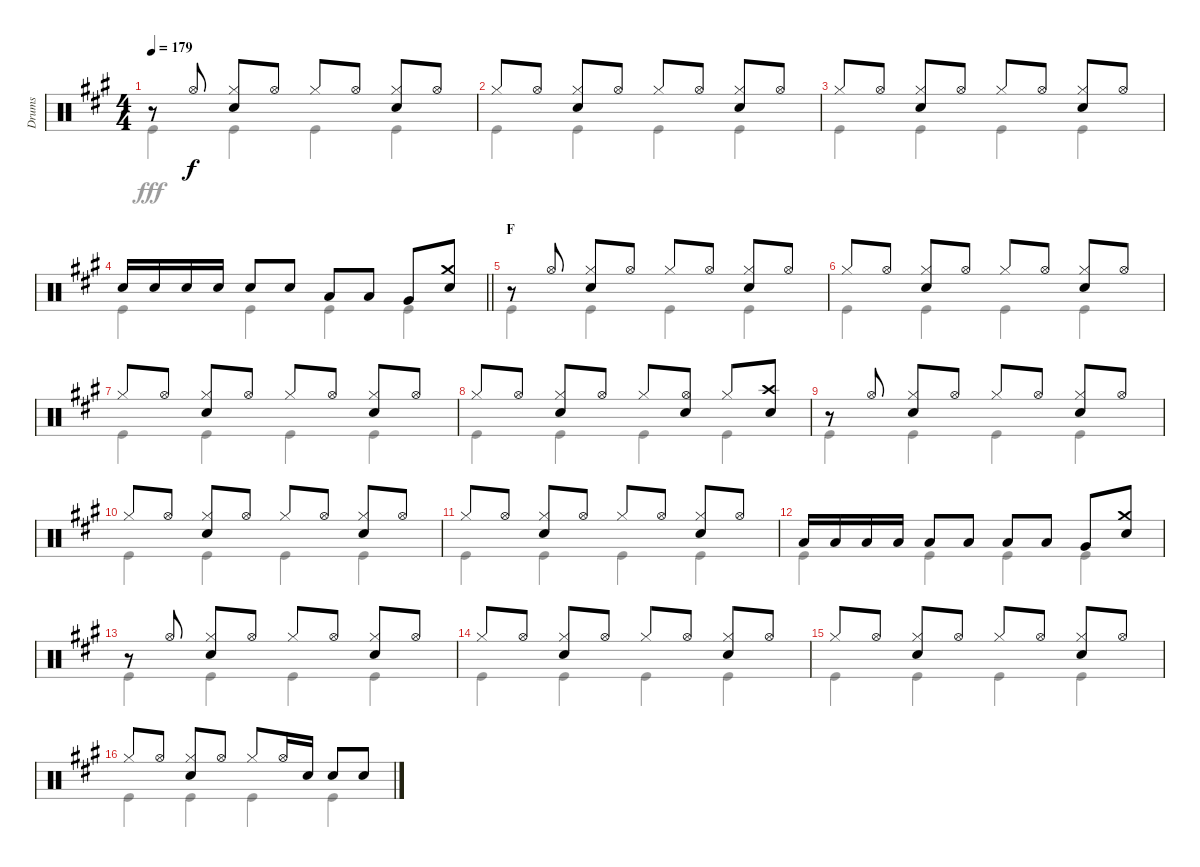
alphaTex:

\track ("Drums" "Drums") {instrument percussion}
\staff {score}
\articulation defaults
\voice
\ts (4 4)
\tempo 179
\clef neutral
\ks a
r.8{dy f} "Hi-Hat (open)".8 ("Hi-Hat (closed)" "Snare (hit) 2").8 "Hi-Hat (open)".8 "Hi-Hat (closed)".8 "Hi-Hat (open)".8 ("Hi-Hat (closed)" "Snare (hit) 2").8 "Hi-Hat (open)".8 |
"Hi-Hat (closed)".8 "Hi-Hat (open)".8 ("Hi-Hat (closed)" "Snare (hit) 2").8 "Hi-Hat (open)".8 "Hi-Hat (closed)".8 "Hi-Hat (open)".8 ("Hi-Hat (closed)" "Snare (hit) 2").8 "Hi-Hat (open)".8 |
"Hi-Hat (closed)".8 "Hi-Hat (open)".8 ("Hi-Hat (closed)" "Snare (hit) 2").8 "Hi-Hat (open)".8 "Hi-Hat (closed)".8 "Hi-Hat (open)".8 ("Hi-Hat (closed)" "Snare (hit) 2").8 "Hi-Hat (open)".8 |
\barLineRight lightlight "Snare (hit) 2".16 "Snare (hit) 2".16 "Snare (hit) 2".16 "Snare (hit) 2".16 "Snare (hit) 2".8 "Snare (hit) 2".8 "Low Tom (hit)".8 "Low Tom (hit)".8 "Very Low Tom (hit)".8
("Crash medium (hit)" "Snare (hit) 2").8 |
\section ("" "F")
r.8 "Hi-Hat (open)".8 ("Hi-Hat (closed)" "Snare (hit) 2").8 "Hi-Hat (open)".8 "Hi-Hat (closed)".8 "Hi-Hat (open)".8 ("Hi-Hat (closed)" "Snare (hit) 2").8 "Hi-Hat (open)".8 |
"Hi-Hat (closed)".8 "Hi-Hat (open)".8 ("Hi-Hat (closed)" "Snare (hit) 2").8 "Hi-Hat (open)".8 "Hi-Hat (closed)".8 "Hi-Hat (open)".8 ("Hi-Hat (closed)" "Snare (hit) 2").8 "Hi-Hat (open)".8 |
"Hi-Hat (closed)".8 "Hi-Hat (open)".8 ("Hi-Hat (closed)" "Snare (hit) 2").8 "Hi-Hat (open)".8 "Hi-Hat (closed)".8 "Hi-Hat (open)".8 ("Hi-Hat (closed)" "Snare (hit) 2").8 "Hi-Hat (open)".8 |
"Hi-Hat (closed)".8 "Hi-Hat (open)".8 ("Hi-Hat (closed)" "Snare (hit) 2").8 "Hi-Hat (open)".8 "Hi-Hat (closed)".8 ("Hi-Hat (open)" "Snare (hit) 2").8 "Hi-Hat (closed)".8 ("Crash high (hit)" "Snare (hit) 2").8 |
r.8 "Hi-Hat (open)".8 ("Hi-Hat (closed)" "Snare (hit) 2").8 "Hi-Hat (open)".8 "Hi-Hat (closed)".8 "Hi-Hat (open)".8 ("Hi-Hat (closed)" "Snare (hit) 2").8 "Hi-Hat (open)".8 |
"Hi-Hat (closed)".8 "Hi-Hat (open)".8 ("Hi-Hat (closed)" "Snare (hit) 2").8 "Hi-Hat (open)".8 "Hi-Hat (closed)".8 "Hi-Hat (open)".8 ("Hi-Hat (closed)" "Snare (hit) 2").8 "Hi-Hat (open)".8 |
"Hi-Hat (closed)".8 "Hi-Hat (open)".8 ("Hi-Hat (closed)" "Snare (hit) 2").8 "Hi-Hat (open)".8 "Hi-Hat (closed)".8 "Hi-Hat (open)".8 ("Hi-Hat (closed)" "Snare (hit) 2").8 "Hi-Hat (open)".8 |
"Low Tom (hit)".16 "Low Tom (hit)".16 "Low Tom (hit)".16 "Low Tom (hit)".16 "Low Tom (hit)".8 "Low Tom (hit)".8 "Low Tom (hit)".8 "Low Tom (hit)".8 "Very Low Tom (hit)".8 ("Crash medium (hit)" "Snare (hit) 2").8 |
r.8 "Hi-Hat (open)".8 ("Hi-Hat (closed)" "Snare (hit) 2").8 "Hi-Hat (open)".8 "Hi-Hat (closed)".8 "Hi-Hat (open)".8 ("Hi-Hat (closed)" "Snare (hit) 2").8 "Hi-Hat (open)".8 |
"Hi-Hat (closed)".8 "Hi-Hat (open)".8 ("Hi-Hat (closed)" "Snare (hit) 2").8 "Hi-Hat (open)".8 "Hi-Hat (closed)".8 "Hi-Hat (open)".8 ("Hi-Hat (closed)" "Snare (hit) 2").8 "Hi-Hat (open)".8 |
"Hi-Hat (closed)".8 "Hi-Hat (open)".8 ("Hi-Hat (closed)" "Snare (hit) 2").8 "Hi-Hat (open)".8 "Hi-Hat (closed)".8 "Hi-Hat (open)".8 ("Hi-Hat (closed)" "Snare (hit) 2").8 "Hi-Hat (open)".8 |
"Hi-Hat (closed)".8 "Hi-Hat (open)".8 ("Hi-Hat (closed)" "Snare (hit) 2").8 "Hi-Hat (open)".8 "Hi-Hat (closed)".8 "Hi-Hat (open)".16 "Snare (hit) 2".16 "Snare (hit) 2".8 "Snare (hit) 2".8
\voice
\clef neutral
\ottava regular
\simile none
\ks a "Kick (hit)".4{dy fff} "Kick (hit)".4 "Kick (hit)".4 "Kick (hit)".4
|
"Kick (hit)".4 "Kick (hit)".4 "Kick (hit)".4 "Kick (hit)".4 |
"Kick (hit)".4 "Kick (hit)".4 "Kick (hit)".4 "Kick (hit)".4 |
\barLineRight lightlight "Kick (hit)".4 "Kick (hit)".4 "Kick (hit)".4 "Kick (hit)".4
|
"Kick (hit)".4 "Kick (hit)".4 "Kick (hit)".4 "Kick (hit)".4 |
"Kick (hit)".4 "Kick (hit)".4 "Kick (hit)".4 "Kick (hit)".4 |
"Kick (hit)".4 "Kick (hit)".4 "Kick (hit)".4 "Kick (hit)".4 |
"Kick (hit)".4 "Kick (hit)".4 "Kick (hit)".4 "Kick (hit)".4 |
"Kick (hit)".4 "Kick (hit)".4 "Kick (hit)".4 "Kick (hit)".4 |
"Kick (hit)".4 "Kick (hit)".4 "Kick (hit)".4 "Kick (hit)".4 |
"Kick (hit)".4 "Kick (hit)".4 "Kick (hit)".4 "Kick (hit)".4 |
"Kick (hit)".4 "Kick (hit)".4 "Kick (hit)".4 "Kick (hit)".4 |
"Kick (hit)".4 "Kick (hit)".4 "Kick (hit)".4 "Kick (hit)".4 |
"Kick (hit)".4 "Kick (hit)".4 "Kick (hit)".4 "Kick (hit)".4 |
"Kick (hit)".4 "Kick (hit)".4 "Kick (hit)".4 "Kick (hit)".4 |
"Kick (hit)".4 "Kick (hit)".4 "Kick (hit)".4 "Kick (hit)".4
